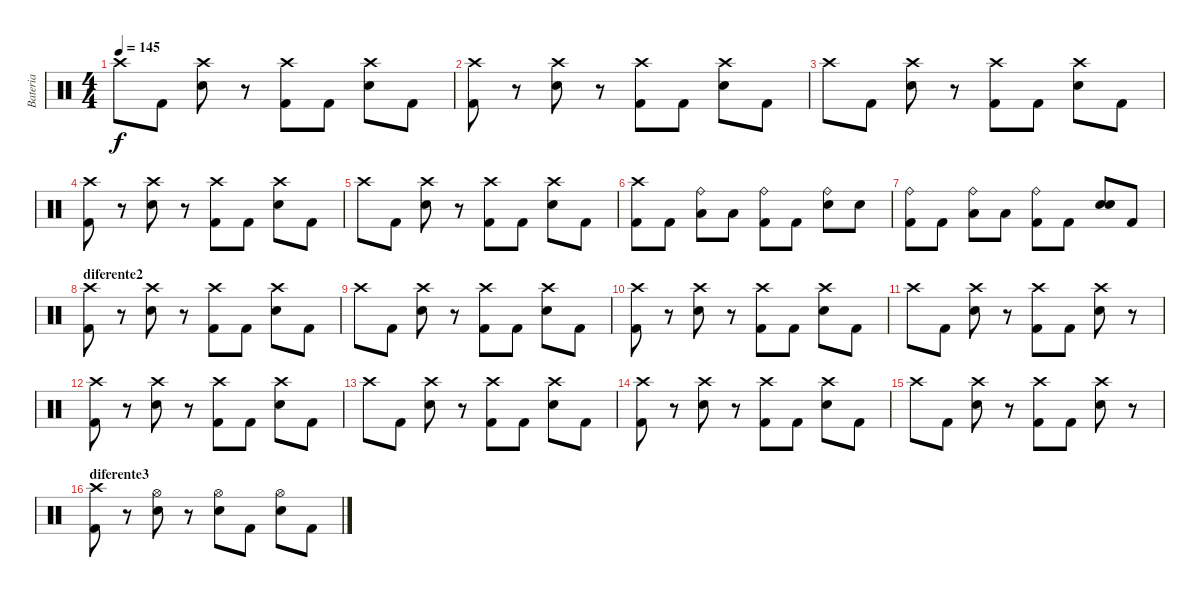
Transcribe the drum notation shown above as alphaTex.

\track ("Bateria" "Bateria") {instrument percussion}
\staff {score}
\articulation defaults
\ts (4 4)
\tempo 145
\clef neutral
\ks c "Crash high (hit)".8{dy f} "Kick (hit) 2".8
("Crash high (hit)" "Electric Snare (hit)").8 r.8 ("Crash high (hit)" "Kick (hit) 2").8 "Kick (hit) 2".8 ("Crash high (hit)" "Electric Snare (hit)").8 "Kick (hit) 2".8 |
("Crash high (hit)" "Kick (hit) 2").8 r.8 ("Crash high (hit)" "Electric Snare (hit)").8 r.8 ("Crash high (hit)" "Kick (hit) 2").8 "Kick (hit) 2".8 ("Crash high (hit)" "Electric Snare (hit)").8 "Kick (hit) 2".8 |
"Crash high (hit)".8 "Kick (hit) 2".8 ("Crash high (hit)" "Electric Snare (hit)").8 r.8 ("Crash high (hit)" "Kick (hit) 2").8 "Kick (hit) 2".8 ("Crash high (hit)" "Electric Snare (hit)").8 "Kick (hit) 2".8 |
("Crash high (hit)" "Kick (hit) 2").8 r.8 ("Crash high (hit)" "Electric Snare (hit)").8 r.8 ("Crash high (hit)" "Kick (hit) 2").8 "Kick (hit) 2".8 ("Crash high (hit)" "Electric Snare (hit)").8 "Kick (hit) 2".8 |
"Crash high (hit)".8 "Kick (hit) 2".8 ("Crash high (hit)" "Electric Snare (hit)").8 r.8 ("Crash high (hit)" "Kick (hit) 2").8 "Kick (hit) 2".8 ("Crash high (hit)" "Electric Snare (hit)").8 "Kick (hit) 2".8 |
("Crash high (hit)" "Kick (hit) 2").8 "Kick (hit) 2".8 ("Ride (bell)" "Low Tom (hit)").8 "Low Tom (hit)".8 ("Ride (bell)" "Kick (hit) 2").8 "Kick (hit) 2".8 ("Ride (bell)" "Electric Snare (hit)").8 "Electric Snare (hit)".8 |
("Ride (bell)" "Kick (hit) 2").8 "Kick (hit) 2".8 ("Ride (bell)" "Low Tom (hit)").8 "Low Tom (hit)".8 ("Ride (bell)" "Kick (hit) 2").8 "Kick (hit) 2".8 ("Electric Snare (hit)" "Electric Snare (hit)").8 "Kick (hit) 2".8 |
\section ("" "diferente2")
("Crash high (hit)" "Kick (hit) 2").8 r.8 ("Crash high (hit)" "Electric Snare (hit)").8 r.8 ("Crash high (hit)" "Kick (hit) 2").8 "Kick (hit) 2".8 ("Crash high (hit)" "Electric Snare (hit)").8 "Kick (hit) 2".8 |
"Crash high (hit)".8 "Kick (hit) 2".8 ("Crash high (hit)" "Electric Snare (hit)").8 r.8 ("Crash high (hit)" "Kick (hit) 2").8 "Kick (hit) 2".8 ("Crash high (hit)" "Electric Snare (hit)").8 "Kick (hit) 2".8 |
("Crash high (hit)" "Kick (hit) 2").8 r.8 ("Crash high (hit)" "Electric Snare (hit)").8 r.8 ("Crash high (hit)" "Kick (hit) 2").8 "Kick (hit) 2".8 ("Crash high (hit)" "Electric Snare (hit)").8 "Kick (hit) 2".8 |
"Crash high (hit)".8 "Kick (hit) 2".8 ("Crash high (hit)" "Electric Snare (hit)").8 r.8 ("Crash high (hit)" "Kick (hit) 2").8 "Kick (hit) 2".8 ("Crash high (hit)" "Electric Snare (hit)").8 r.8 |
("Crash high (hit)" "Kick (hit) 2").8 r.8 ("Crash high (hit)" "Electric Snare (hit)").8 r.8 ("Crash high (hit)" "Kick (hit) 2").8 "Kick (hit) 2".8 ("Crash high (hit)" "Electric Snare (hit)").8 "Kick (hit) 2".8 |
"Crash high (hit)".8 "Kick (hit) 2".8 ("Crash high (hit)" "Electric Snare (hit)").8 r.8 ("Crash high (hit)" "Kick (hit) 2").8 "Kick (hit) 2".8 ("Crash high (hit)" "Electric Snare (hit)").8 "Kick (hit) 2".8 |
("Crash high (hit)" "Kick (hit) 2").8 r.8 ("Crash high (hit)" "Electric Snare (hit)").8 r.8 ("Crash high (hit)" "Kick (hit) 2").8 "Kick (hit) 2".8 ("Crash high (hit)" "Electric Snare (hit)").8 "Kick (hit) 2".8 |
"Crash high (hit)".8 "Kick (hit) 2".8 ("Crash high (hit)" "Electric Snare (hit)").8 r.8 ("Crash high (hit)" "Kick (hit) 2").8 "Kick (hit) 2".8 ("Crash high (hit)" "Electric Snare (hit)").8 r.8 |
\section ("" "diferente3")
("Crash high (hit)" "Kick (hit) 2").8 r.8 ("Hi-Hat (open)" "Electric Snare (hit)").8 r.8 ("Hi-Hat (open)" "Electric Snare (hit)").8 "Kick (hit) 2".8 ("Hi-Hat (open)" "Electric Snare (hit)").8 "Kick (hit) 2".8
